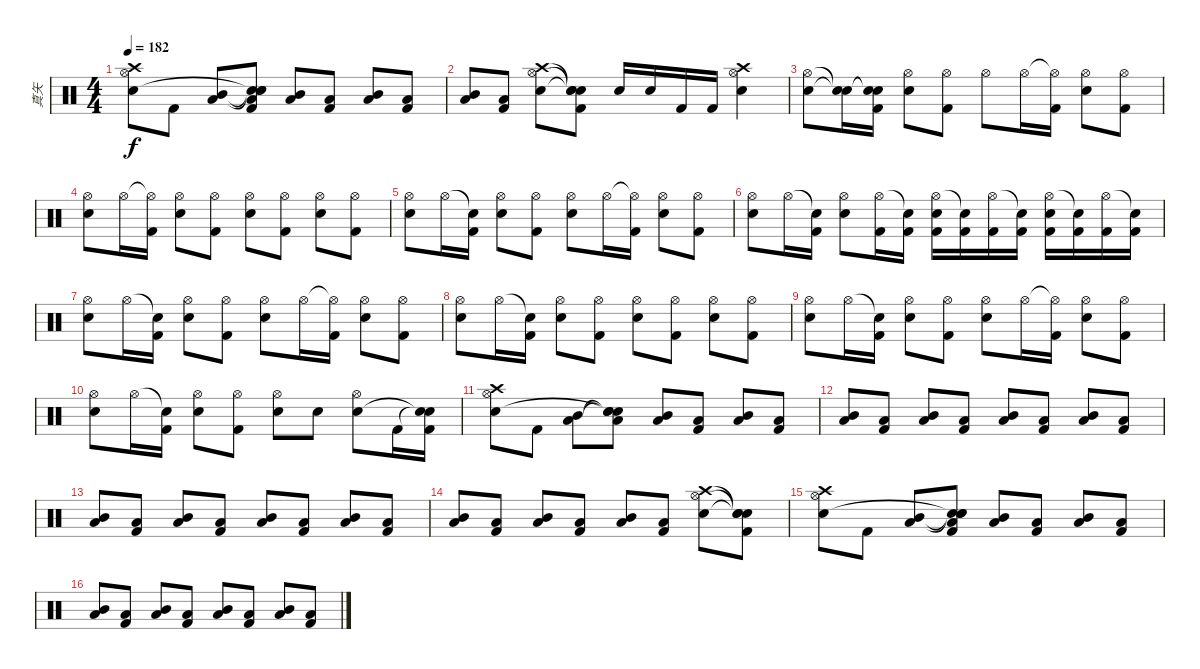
\track ("真矢" "真矢") {instrument percussion}
\staff {score}
\articulation defaults
\ts (4 4)
\tempo 182
\clef neutral
\ks c
("Crash high (hit)" "Hi-Hat (open)" "Electric Snare (hit)").8{dy f} "Kick (hit) 2".8 ("Mid Tom (hit)" "Low Tom (hit)").8 ("Snare (hit)"{t} "Snare (hit)"{t} "Snare (hit)"{t} "Low Tom (hit)" "Kick (hit) 2").8 ("Mid Tom (hit)" "Low Tom (hit)").8 ("Low Tom (hit)" "Kick (hit) 2").8 ("Mid Tom (hit)" "Low Tom (hit)").8 ("Low Tom (hit)" "Kick (hit) 2").8 |
("Mid Tom (hit)" "Low Tom (hit)").8 ("Low Tom (hit)" "Kick (hit) 2").8 ("Crash high (hit)" "Hi-Hat (open)" "Electric Snare (hit)").8 ("Snare (hit)"{t} "Snare (hit)"{t} "Snare (hit)"{t} "Kick (hit) 2").8 "Electric Snare (hit)".16 "Electric Snare (hit)".16 "Kick (hit) 2".16 "Kick (hit) 2".16 ("Crash high (hit)" "Hi-Hat (open)" "Electric Snare (hit)").4 |
("Hi-Hat (open)" "Electric Snare (hit)").8 ("Snare (hit)"{t} "Snare (hit)"{t}).16 ("Snare (hit)"{t} "Snare (hit)"{t} "Kick (hit) 2").16 ("Hi-Hat (open)" "Electric Snare (hit)").8 ("Hi-Hat (open)" "Kick (hit) 2").8 "Hi-Hat (open)".8 "Hi-Hat (open)".16 ("Hi-Hat (open)"{t} "Kick (hit) 2").16 ("Hi-Hat (open)" "Electric Snare (hit)").8 ("Hi-Hat (open)" "Kick (hit) 2").8 |
("Hi-Hat (open)" "Electric Snare (hit)").8 "Hi-Hat (open)".16 ("Hi-Hat (open)"{t} "Kick (hit) 2").16 ("Hi-Hat (open)" "Electric Snare (hit)").8 ("Hi-Hat (open)" "Kick (hit) 2").8 ("Hi-Hat (open)" "Electric Snare (hit)").8 ("Hi-Hat (open)" "Kick (hit) 2").8 ("Hi-Hat (open)" "Electric Snare (hit)").8 ("Hi-Hat (open)" "Kick (hit) 2").8 |
("Hi-Hat (open)" "Electric Snare (hit)").8 "Hi-Hat (open)".16 ("Snare (hit)"{t} "Kick (hit) 2").16 ("Hi-Hat (open)" "Electric Snare (hit)").8 ("Hi-Hat (open)" "Kick (hit) 2").8 ("Hi-Hat (open)" "Electric Snare (hit)").8 "Hi-Hat (open)".16 ("Hi-Hat (open)"{t} "Kick (hit) 2").16 ("Hi-Hat (open)" "Electric Snare (hit)").8 ("Hi-Hat (open)" "Kick (hit) 2").8 |
("Hi-Hat (open)" "Electric Snare (hit)").8 "Hi-Hat (open)".16 ("Snare (hit)"{t} "Kick (hit) 2").16 ("Hi-Hat (open)" "Electric Snare (hit)").8 ("Hi-Hat (open)" "Kick (hit) 2").16 ("Snare (hit)"{t} "Kick (hit) 2").16 ("Hi-Hat (open)" "Electric Snare (hit)" "Kick (hit) 2").16 ("Snare (hit)"{t} "Kick (hit) 2").16 ("Hi-Hat (open)" "Kick (hit) 2").16 ("Snare (hit)"{t} "Kick (hit) 2").16 ("Hi-Hat (open)" "Electric Snare (hit)" "Kick (hit) 2").16 ("Snare (hit)"{t} "Kick (hit) 2").16 ("Hi-Hat (open)" "Kick (hit) 2").16 ("Snare (hit)"{t} "Kick (hit) 2").16 |
("Hi-Hat (open)" "Electric Snare (hit)").8 "Hi-Hat (open)".16 ("Snare (hit)"{t} "Kick (hit) 2").16 ("Hi-Hat (open)" "Electric Snare (hit)").8 ("Hi-Hat (open)" "Kick (hit) 2").8 ("Hi-Hat (open)" "Electric Snare (hit)").8 "Hi-Hat (open)".16 ("Hi-Hat (open)"{t} "Kick (hit) 2").16 ("Hi-Hat (open)" "Electric Snare (hit)").8 ("Hi-Hat (open)" "Kick (hit) 2").8 |
("Hi-Hat (open)" "Electric Snare (hit)").8 "Hi-Hat (open)".16 ("Snare (hit)"{t} "Kick (hit) 2").16 ("Hi-Hat (open)" "Electric Snare (hit)").8 ("Hi-Hat (open)" "Kick (hit) 2").8 ("Hi-Hat (open)" "Electric Snare (hit)").8 ("Hi-Hat (open)" "Kick (hit) 2").8 ("Hi-Hat (open)" "Electric Snare (hit)").8 ("Hi-Hat (open)" "Kick (hit) 2").8 |
("Hi-Hat (open)" "Electric Snare (hit)").8 "Hi-Hat (open)".16 ("Snare (hit)"{t} "Kick (hit) 2").16 ("Hi-Hat (open)" "Electric Snare (hit)").8 ("Hi-Hat (open)" "Kick (hit) 2").8 ("Hi-Hat (open)" "Electric Snare (hit)").8 "Hi-Hat (open)".16 ("Hi-Hat (open)"{t} "Kick (hit) 2").16 ("Hi-Hat (open)" "Electric Snare (hit)").8 ("Hi-Hat (open)" "Kick (hit) 2").8 |
("Hi-Hat (open)" "Electric Snare (hit)").8 "Hi-Hat (open)".16 ("Snare (hit)"{t} "Kick (hit) 2").16 ("Hi-Hat (open)" "Electric Snare (hit)").8 ("Hi-Hat (open)" "Kick (hit) 2").8 ("Hi-Hat (open)" "Electric Snare (hit)").8 "Electric Snare (hit)".8 ("Hi-Hat (open)" "Electric Snare (hit)").8 "Kick (hit) 2".16 ("Snare (hit)"{t} "Snare (hit)"{t} "Kick (hit) 2").16 |
("Crash high (hit)" "Hi-Hat (open)" "Electric Snare (hit)").8 "Kick (hit) 2".8 ("Mid Tom (hit)" "Low Tom (hit)").8 ("Snare (hit)"{t} "Snare (hit)"{t} "Snare (hit)"{t} "Low Tom (hit)").8 ("Mid Tom (hit)" "Low Tom (hit)").8 ("Low Tom (hit)" "Kick (hit) 2").8 ("Mid Tom (hit)" "Low Tom (hit)").8 ("Low Tom (hit)" "Kick (hit) 2").8 |
("Mid Tom (hit)" "Low Tom (hit)").8 ("Low Tom (hit)" "Kick (hit) 2").8 ("Mid Tom (hit)" "Low Tom (hit)").8 ("Low Tom (hit)" "Kick (hit) 2").8 ("Mid Tom (hit)" "Low Tom (hit)").8 ("Low Tom (hit)" "Kick (hit) 2").8 ("Mid Tom (hit)" "Low Tom (hit)").8 ("Low Tom (hit)" "Kick (hit) 2").8 |
("Mid Tom (hit)" "Low Tom (hit)").8 ("Low Tom (hit)" "Kick (hit) 2").8 ("Mid Tom (hit)" "Low Tom (hit)").8 ("Low Tom (hit)" "Kick (hit) 2").8 ("Mid Tom (hit)" "Low Tom (hit)").8 ("Low Tom (hit)" "Kick (hit) 2").8 ("Mid Tom (hit)" "Low Tom (hit)").8 ("Low Tom (hit)" "Kick (hit) 2").8 |
("Mid Tom (hit)" "Low Tom (hit)").8 ("Low Tom (hit)" "Kick (hit) 2").8 ("Mid Tom (hit)" "Low Tom (hit)").8 ("Low Tom (hit)" "Kick (hit) 2").8 ("Mid Tom (hit)" "Low Tom (hit)").8 ("Low Tom (hit)" "Kick (hit) 2").8 ("Crash high (hit)" "Hi-Hat (open)" "Electric Snare (hit)").8 ("Snare (hit)"{t} "Snare (hit)"{t} "Snare (hit)"{t} "Kick (hit) 2").8 |
("Crash high (hit)" "Hi-Hat (open)" "Electric Snare (hit)").8 "Kick (hit) 2".8 ("Mid Tom (hit)" "Low Tom (hit)").8 ("Snare (hit)"{t} "Snare (hit)"{t} "Snare (hit)"{t} "Low Tom (hit)" "Kick (hit) 2").8 ("Mid Tom (hit)" "Low Tom (hit)").8 ("Low Tom (hit)" "Kick (hit) 2").8 ("Mid Tom (hit)" "Low Tom (hit)").8 ("Low Tom (hit)" "Kick (hit) 2").8 |
("Mid Tom (hit)" "Low Tom (hit)").8 ("Low Tom (hit)" "Kick (hit) 2").8 ("Mid Tom (hit)" "Low Tom (hit)").8 ("Low Tom (hit)" "Kick (hit) 2").8 ("Mid Tom (hit)" "Low Tom (hit)").8 ("Low Tom (hit)" "Kick (hit) 2").8 ("Mid Tom (hit)" "Low Tom (hit)").8 ("Low Tom (hit)" "Kick (hit) 2").8
